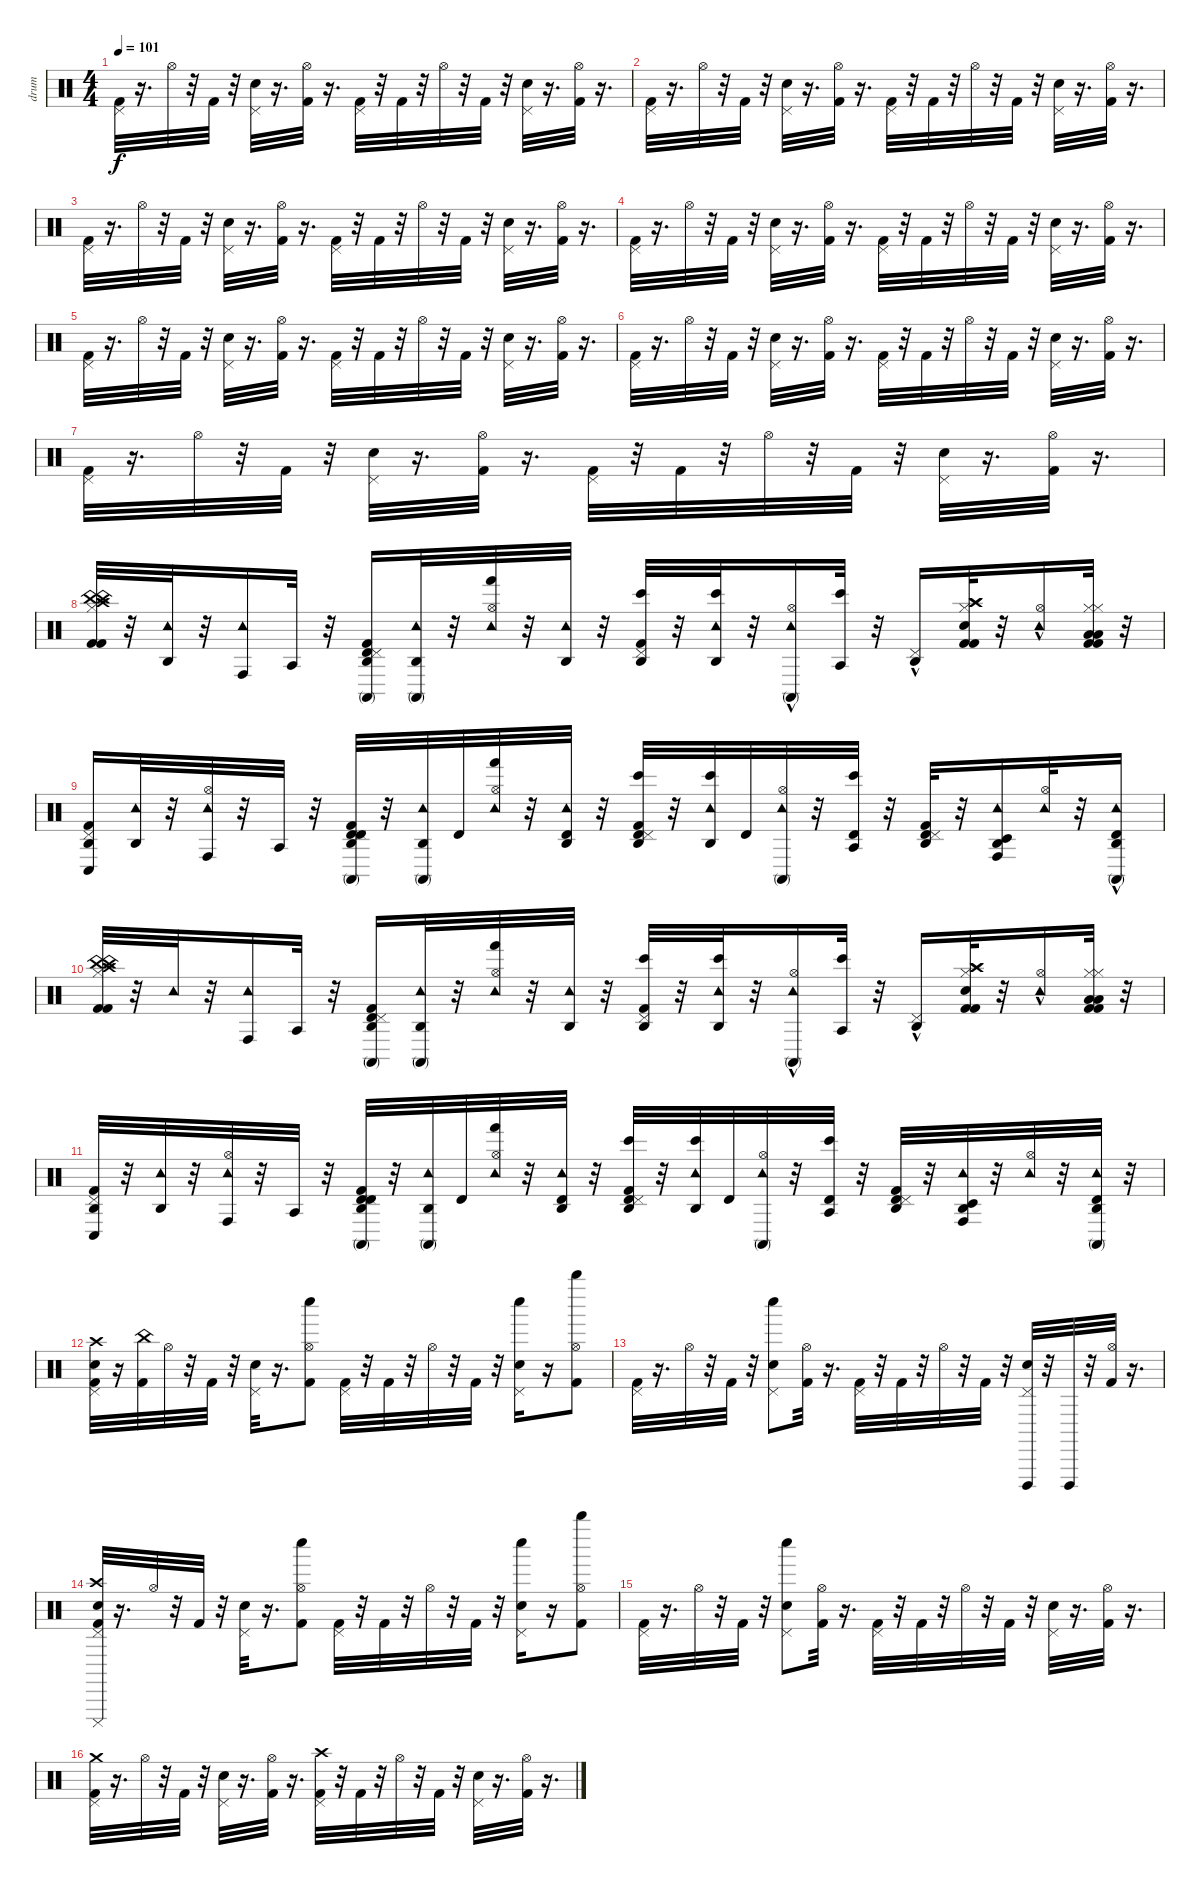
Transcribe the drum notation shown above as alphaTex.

\track ("drum" "drum") {instrument percussion}
\staff {score}
\articulation defaults
\ts (4 4)
\tempo 101
\clef neutral
\ks c
("Kick (hit) 2" "Pedal Hi-Hat (hit)").32{dy f} r.16{d} "Hi-Hat (open)".32 r.32 "Kick (hit) 2".32 r.32 ("Electric Snare (hit)" "Pedal Hi-Hat (hit)").32 r.16{d} ("Kick (hit) 2" "Hi-Hat (open)").32 r.16{d} ("Kick (hit) 2" "Pedal Hi-Hat (hit)").32 r.32 "Kick (hit) 2".32 r.32 "Hi-Hat (open)".32 r.32 "Kick (hit) 2".32 r.32 ("Electric Snare (hit)" "Pedal Hi-Hat (hit)").32 r.16{d} ("Kick (hit) 2" "Hi-Hat (open)").32 r.16{d} |
("Kick (hit) 2" "Pedal Hi-Hat (hit)").32 r.16{d} "Hi-Hat (open)".32 r.32 "Kick (hit) 2".32 r.32 ("Electric Snare (hit)" "Pedal Hi-Hat (hit)").32 r.16{d} ("Kick (hit) 2" "Hi-Hat (open)").32 r.16{d} ("Kick (hit) 2" "Pedal Hi-Hat (hit)").32 r.32 "Kick (hit) 2".32 r.32 "Hi-Hat (open)".32 r.32 "Kick (hit) 2".32 r.32 ("Electric Snare (hit)" "Pedal Hi-Hat (hit)").32 r.16{d} ("Kick (hit) 2" "Hi-Hat (open)").32 r.16{d} |
("Kick (hit) 2" "Pedal Hi-Hat (hit)").32 r.16{d} "Hi-Hat (open)".32 r.32 "Kick (hit) 2".32 r.32 ("Electric Snare (hit)" "Pedal Hi-Hat (hit)").32 r.16{d} ("Kick (hit) 2" "Hi-Hat (open)").32 r.16{d} ("Kick (hit) 2" "Pedal Hi-Hat (hit)").32 r.32 "Kick (hit) 2".32 r.32 "Hi-Hat (open)".32 r.32 "Kick (hit) 2".32 r.32 ("Electric Snare (hit)" "Pedal Hi-Hat (hit)").32 r.16{d} ("Kick (hit) 2" "Hi-Hat (open)").32 r.16{d} |
("Kick (hit) 2" "Pedal Hi-Hat (hit)").32 r.16{d} "Hi-Hat (open)".32 r.32 "Kick (hit) 2".32 r.32 ("Electric Snare (hit)" "Pedal Hi-Hat (hit)").32 r.16{d} ("Kick (hit) 2" "Hi-Hat (open)").32 r.16{d} ("Kick (hit) 2" "Pedal Hi-Hat (hit)").32 r.32 "Kick (hit) 2".32 r.32 "Hi-Hat (open)".32 r.32 "Kick (hit) 2".32 r.32 ("Electric Snare (hit)" "Pedal Hi-Hat (hit)").32 r.16{d} ("Kick (hit) 2" "Hi-Hat (open)").32 r.16{d} |
("Kick (hit) 2" "Pedal Hi-Hat (hit)").32 r.16{d} "Hi-Hat (open)".32 r.32 "Kick (hit) 2".32 r.32 ("Electric Snare (hit)" "Pedal Hi-Hat (hit)").32 r.16{d} ("Kick (hit) 2" "Hi-Hat (open)").32 r.16{d} ("Kick (hit) 2" "Pedal Hi-Hat (hit)").32 r.32 "Kick (hit) 2".32 r.32 "Hi-Hat (open)".32 r.32 "Kick (hit) 2".32 r.32 ("Electric Snare (hit)" "Pedal Hi-Hat (hit)").32 r.16{d} ("Kick (hit) 2" "Hi-Hat (open)").32 r.16{d} |
("Kick (hit) 2" "Pedal Hi-Hat (hit)").32 r.16{d} "Hi-Hat (open)".32 r.32 "Kick (hit) 2".32 r.32 ("Electric Snare (hit)" "Pedal Hi-Hat (hit)").32 r.16{d} ("Kick (hit) 2" "Hi-Hat (open)").32 r.16{d} ("Kick (hit) 2" "Pedal Hi-Hat (hit)").32 r.32 "Kick (hit) 2".32 r.32 "Hi-Hat (open)".32 r.32 "Kick (hit) 2".32 r.32 ("Electric Snare (hit)" "Pedal Hi-Hat (hit)").32 r.16{d} ("Kick (hit) 2" "Hi-Hat (open)").32 r.16{d} |
("Kick (hit) 2" "Pedal Hi-Hat (hit)").32 r.16{d} "Hi-Hat (open)".32 r.32 "Kick (hit) 2".32 r.32 ("Electric Snare (hit)" "Pedal Hi-Hat (hit)").32 r.16{d} ("Kick (hit) 2" "Hi-Hat (open)").32 r.16{d} ("Kick (hit) 2" "Pedal Hi-Hat (hit)").32 r.32 "Kick (hit) 2".32 r.32 "Hi-Hat (open)".32 r.32 "Kick (hit) 2".32 r.32 ("Electric Snare (hit)" "Pedal Hi-Hat (hit)").32 r.16{d} ("Kick (hit) 2" "Hi-Hat (open)").32 r.16{d} |
("Kick (hit) 2" "China (hit)" "Hi-Hat (closed)" "Crash high (hit)" "Kick (hit) 2" "China (hit)").32 r.32 ("Agogo high (hit)" "Tambourine (hit)").32 r.32 ("Conga high (hit)" "Tambourine (hit)").16 "Agogo tow (hit)".32 r.32 ("Kick (hit) 2" "Conga high (mute)" "Timbale high (hit)" "Agogo high (hit)" "Pedal Hi-Hat (hit)").16 ("Conga high (mute)" "Agogo high (hit)" "Tambourine (hit)").32 r.32 ("Hand (hit)" "Hi-Hat (open)" "Tambourine (hit)").32 r.32 ("Agogo high (hit)" "Tambourine (hit)").32 r.32 ("Kick (hit) 2" "Bongo High (hit)" "Agogo high (hit)" "Pedal Hi-Hat (hit)").32 r.32 ("Bongo High (hit)" "Agogo high (hit)" "Tambourine (hit)").32 r.32 ("Conga high (mute)" "Hi-Hat (open)" "Tambourine (hit)"{hac}).16 ("Agogo tow (hit)" "Bongo High (hit)").32 r.32 ("Agogo high (hit)"{hac} "Pedal Hi-Hat (hit)").16 ("Kick (hit) 2" "Crash high (hit)" "Hi-Hat (closed)" "Electric Snare (hit)" "Kick (hit) 2" "Crash high (hit)").32 r.32 ("Hi-Hat (open)" "Tambourine (hit)"{hac}).16 ("Kick (hit) 2" "Low Floor Tom (hit)" "Hi-Hat (closed)" "Kick (hit) 2" "Low Floor Tom (hit)" "Hi-Hat (closed)").32 r.32 |
("Agogo high (hit)" "Conga low (hit)" "Kick (hit) 2" "Pedal Hi-Hat (hit)").16 ("Agogo high (hit)" "Tambourine (hit)").32 r.32 ("Conga high (hit)" "Hi-Hat (open)" "Tambourine (hit)").32 r.32 "Agogo tow (hit)".32 r.32 ("Timbale high (hit)" "Conga high (mute)" "Timbale high (hit)" "Agogo high (hit)" "Kick (hit) 2" "Pedal Hi-Hat (hit)").32 r.32 ("Conga high (mute)" "Agogo high (hit)" "Tambourine (hit)").32 "Timbale high (hit)".32 ("Hand (hit)" "Hi-Hat (open)" "Tambourine (hit)").32 r.32 ("Timbale high (hit)" "Agogo high (hit)" "Tambourine (hit)").32 r.32 ("Timbale high (hit)" "Bongo High (hit)" "Agogo high (hit)" "Kick (hit) 2" "Pedal Hi-Hat (hit)").32 r.32 ("Bongo High (hit)" "Agogo high (hit)" "Tambourine (hit)").32 "Timbale high (hit)".32 ("Conga high (mute)" "Hi-Hat (open)" "Tambourine (hit)").32 r.32 ("Timbale high (hit)" "Agogo tow (hit)" "Bongo High (hit)").32 r.32 ("Timbale high (hit)" "Agogo high (hit)" "Kick (hit) 2" "Pedal Hi-Hat (hit)").32 r.32 ("Timbale low (hit)" "Agogo high (hit)" "Conga high (hit)" "Tambourine (hit)").16 ("Hi-Hat (open)" "Tambourine (hit)").32 r.32 ("Timbale high (hit)" "Agogo high (hit)"{hac} "Conga high (mute)" "Tambourine (hit)").16 |
("Kick (hit) 2" "China (hit)" "Hi-Hat (closed)" "Crash high (hit)" "Kick (hit) 2" "China (hit)").32 r.32 "Tambourine (hit)".32 r.32 ("Conga high (hit)" "Tambourine (hit)").16 "Agogo tow (hit)".32 r.32 ("Kick (hit) 2" "Conga high (mute)" "Timbale high (hit)" "Agogo high (hit)" "Pedal Hi-Hat (hit)").16 ("Conga high (mute)" "Agogo high (hit)" "Tambourine (hit)").32 r.32 ("Hand (hit)" "Hi-Hat (open)" "Tambourine (hit)").32 r.32 ("Agogo high (hit)" "Tambourine (hit)").32 r.32 ("Kick (hit) 2" "Bongo High (hit)" "Agogo high (hit)" "Pedal Hi-Hat (hit)").32 r.32 ("Bongo High (hit)" "Agogo high (hit)" "Tambourine (hit)").32 r.32 ("Conga high (mute)" "Hi-Hat (open)" "Tambourine (hit)"{hac}).16 ("Agogo tow (hit)" "Bongo High (hit)").32 r.32 ("Agogo high (hit)"{hac} "Pedal Hi-Hat (hit)").16 ("Kick (hit) 2" "Crash high (hit)" "Hi-Hat (closed)" "Electric Snare (hit)" "Kick (hit) 2" "Crash high (hit)").32 r.32 ("Hi-Hat (open)" "Tambourine (hit)"{hac}).16 ("Kick (hit) 2" "Low Floor Tom (hit)" "Hi-Hat (closed)" "Kick (hit) 2" "Low Floor Tom (hit)" "Hi-Hat (closed)").32 r.32 |
("Agogo high (hit)" "Conga low (hit)" "Kick (hit) 2" "Pedal Hi-Hat (hit)").32 r.32 ("Agogo high (hit)" "Tambourine (hit)").32 r.32 ("Conga high (hit)" "Hi-Hat (open)" "Tambourine (hit)").32 r.32 "Agogo tow (hit)".32 r.32 ("Timbale high (hit)" "Conga high (mute)" "Timbale high (hit)" "Agogo high (hit)" "Kick (hit) 2" "Pedal Hi-Hat (hit)").32 r.32 ("Conga high (mute)" "Agogo high (hit)" "Tambourine (hit)").32 "Timbale high (hit)".32 ("Hand (hit)" "Hi-Hat (open)" "Tambourine (hit)").32 r.32 ("Timbale high (hit)" "Agogo high (hit)" "Tambourine (hit)").32 r.32 ("Timbale high (hit)" "Bongo High (hit)" "Agogo high (hit)" "Kick (hit) 2" "Pedal Hi-Hat (hit)").32 r.32 ("Bongo High (hit)" "Agogo high (hit)" "Tambourine (hit)").32 "Timbale high (hit)".32 ("Conga high (mute)" "Hi-Hat (open)" "Tambourine (hit)").32 r.32 ("Timbale high (hit)" "Agogo tow (hit)" "Bongo High (hit)").32 r.32 ("Timbale high (hit)" "Agogo high (hit)" "Kick (hit) 2" "Pedal Hi-Hat (hit)").32 r.32 ("Timbale low (hit)" "Agogo high (hit)" "Conga high (hit)" "Tambourine (hit)").32 r.32 ("Hi-Hat (open)" "Tambourine (hit)").32 r.32 ("Timbale high (hit)" "Agogo high (hit)" "Conga high (mute)" "Tambourine (hit)").32 r.32 |
("Kick (hit) 2" "Pedal Hi-Hat (hit)" "Electric Snare (hit)" "Crash high (hit)").32 r.16 ("China (hit)" "Kick (hit) 2").32 "Hi-Hat (open)".32 r.32 "Kick (hit) 2".32 r.32 ("Electric Snare (hit)" "Pedal Hi-Hat (hit)").32 r.16{d} ("Kick (hit) 2" "Hi-Hat (open)" "Whistle low (hit)").8 ("Kick (hit) 2" "Pedal Hi-Hat (hit)").32 r.32 "Kick (hit) 2".32 r.32 "Hi-Hat (open)".32 r.32 "Kick (hit) 2".32 r.32 ("Electric Snare (hit)" "Pedal Hi-Hat (hit)" "Whistle low (hit)").16 r.16 ("Kick (hit) 2" "Hi-Hat (open)" "Whistle high (hit)").8 |
("Kick (hit) 2" "Pedal Hi-Hat (hit)").32 r.16{d} "Hi-Hat (open)".32 r.32 "Kick (hit) 2".32 r.32 ("Electric Snare (hit)" "Pedal Hi-Hat (hit)" "Whistle low (hit)").8 ("Kick (hit) 2" "Hi-Hat (open)").32 r.16{d} ("Kick (hit) 2" "Pedal Hi-Hat (hit)").32 r.32 "Kick (hit) 2".32 r.32 "Hi-Hat (open)".32 r.32 "Kick (hit) 2".32 r.32 ("Electric Snare (hit)" "Pedal Hi-Hat (hit)" "Cuica (open)").32 r.32 "Cuica (open)".32 r.32 ("Kick (hit) 2" "Hi-Hat (open)").32 r.16{d} |
("Kick (hit) 2" "Pedal Hi-Hat (hit)" "Electric Snare (hit)" "Crash high (hit)" "Cuica (mute)").32 r.16{d} "Hi-Hat (open)".32 r.32 "Kick (hit) 2".32 r.32 ("Electric Snare (hit)" "Pedal Hi-Hat (hit)").32 r.16{d} ("Kick (hit) 2" "Hi-Hat (open)" "Whistle low (hit)").8 ("Kick (hit) 2" "Pedal Hi-Hat (hit)").32 r.32 "Kick (hit) 2".32 r.32 "Hi-Hat (open)".32 r.32 "Kick (hit) 2".32 r.32 ("Electric Snare (hit)" "Pedal Hi-Hat (hit)" "Whistle low (hit)").16 r.16 ("Kick (hit) 2" "Hi-Hat (open)" "Whistle high (hit)").8 |
("Kick (hit) 2" "Pedal Hi-Hat (hit)").32 r.16{d} "Hi-Hat (open)".32 r.32 "Kick (hit) 2".32 r.32 ("Electric Snare (hit)" "Pedal Hi-Hat (hit)" "Whistle low (hit)").8 ("Kick (hit) 2" "Hi-Hat (open)").32 r.16{d} ("Kick (hit) 2" "Pedal Hi-Hat (hit)").32 r.32 "Kick (hit) 2".32 r.32 "Hi-Hat (open)".32 r.32 "Kick (hit) 2".32 r.32 ("Electric Snare (hit)" "Pedal Hi-Hat (hit)").32 r.16{d} ("Kick (hit) 2" "Hi-Hat (open)").32 r.16{d} |
("Kick (hit) 2" "Pedal Hi-Hat (hit)" "Crash medium (hit)").32 r.16{d} "Hi-Hat (open)".32 r.32 "Kick (hit) 2".32 r.32 ("Electric Snare (hit)" "Pedal Hi-Hat (hit)").32 r.16{d} ("Kick (hit) 2" "Hi-Hat (open)").32 r.16{d} ("Kick (hit) 2" "Pedal Hi-Hat (hit)" "Crash high (hit)").32 r.32 "Kick (hit) 2".32 r.32 "Hi-Hat (open)".32 r.32 "Kick (hit) 2".32 r.32 ("Electric Snare (hit)" "Pedal Hi-Hat (hit)").32 r.16{d} ("Kick (hit) 2" "Hi-Hat (open)").32 r.16{d}
